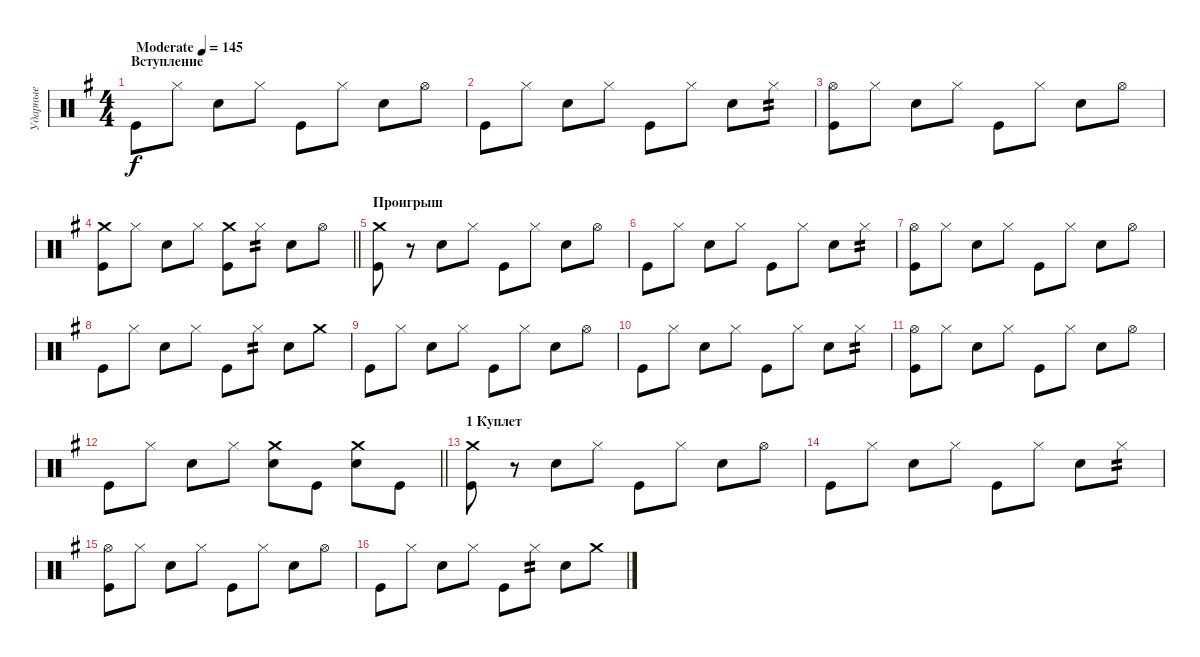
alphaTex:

\track ("Ударные" "Ударные") {instrument percussion}
\staff {score}
\articulation defaults
\ts (4 4)
\section ("" "Вступление")
\tempo (145 "Moderate")
\clef neutral
\ks eminor "Kick (hit)".8{dy f} "Hi-Hat (closed)".8 "Snare (hit) 2".8 "Hi-Hat (closed)".8 "Kick (hit)".8 "Hi-Hat (closed)".8 "Snare (hit) 2".8 "Hi-Hat (open)".8
|
"Kick (hit)".8 "Hi-Hat (closed)".8 "Snare (hit) 2".8 "Hi-Hat (closed)".8 "Kick (hit)".8 "Hi-Hat (closed)".8 "Snare (hit) 2".8 "Hi-Hat (closed)".8{tp 2} |
("Hi-Hat (open)" "Kick (hit)").8 "Hi-Hat (closed)".8 "Snare (hit) 2".8 "Hi-Hat (closed)".8 "Kick (hit)".8 "Hi-Hat (closed)".8 "Snare (hit) 2".8 "Hi-Hat (open)".8 |
\barLineRight lightlight
("Crash medium (hit)" "Kick (hit)").8 "Hi-Hat (closed)".8 "Snare (hit) 2".8 "Hi-Hat (closed)".8 ("Crash medium (hit)" "Kick (hit)").8 "Hi-Hat (closed)".8{tp 2} "Snare (hit) 2".8 "Hi-Hat (open)".8 |
\section ("" "Проигрыш")
("Crash medium (hit)" "Kick (hit)").8 r.8 "Snare (hit) 2".8 "Hi-Hat (closed)".8 "Kick (hit)".8 "Hi-Hat (closed)".8 "Snare (hit) 2".8 "Hi-Hat (open)".8 |
"Kick (hit)".8 "Hi-Hat (closed)".8 "Snare (hit) 2".8 "Hi-Hat (closed)".8 "Kick (hit)".8 "Hi-Hat (closed)".8 "Snare (hit) 2".8 "Hi-Hat (closed)".8{tp 2} |
("Hi-Hat (open)" "Kick (hit)").8 "Hi-Hat (closed)".8 "Snare (hit) 2".8 "Hi-Hat (closed)".8 "Kick (hit)".8 "Hi-Hat (closed)".8 "Snare (hit) 2".8 "Hi-Hat (open)".8 |
"Kick (hit)".8 "Hi-Hat (closed)".8 "Snare (hit) 2".8 "Hi-Hat (closed)".8 "Kick (hit)".8 "Hi-Hat (closed)".8{tp 2} "Snare (hit) 2".8 "Crash medium (hit)".8 |
"Kick (hit)".8 "Hi-Hat (closed)".8 "Snare (hit) 2".8 "Hi-Hat (closed)".8 "Kick (hit)".8 "Hi-Hat (closed)".8 "Snare (hit) 2".8 "Hi-Hat (open)".8 |
"Kick (hit)".8 "Hi-Hat (closed)".8 "Snare (hit) 2".8 "Hi-Hat (closed)".8 "Kick (hit)".8 "Hi-Hat (closed)".8 "Snare (hit) 2".8 "Hi-Hat (closed)".8{tp 2} |
("Hi-Hat (open)" "Kick (hit)").8 "Hi-Hat (closed)".8 "Snare (hit) 2".8 "Hi-Hat (closed)".8 "Kick (hit)".8 "Hi-Hat (closed)".8 "Snare (hit) 2".8 "Hi-Hat (open)".8 |
\barLineRight lightlight "Kick (hit)".8 "Hi-Hat (closed)".8 "Snare (hit) 2".8 "Hi-Hat (closed)".8
("Crash medium (hit)" "Snare (hit) 2").8 "Kick (hit)".8 ("Crash medium (hit)" "Snare (hit) 2").8 "Kick (hit)".8 |
\section ("" "1 Куплет")
("Crash medium (hit)" "Kick (hit)").8 r.8 "Snare (hit) 2".8 "Hi-Hat (closed)".8 "Kick (hit)".8 "Hi-Hat (closed)".8 "Snare (hit) 2".8 "Hi-Hat (open)".8 |
"Kick (hit)".8 "Hi-Hat (closed)".8 "Snare (hit) 2".8 "Hi-Hat (closed)".8 "Kick (hit)".8 "Hi-Hat (closed)".8 "Snare (hit) 2".8 "Hi-Hat (closed)".8{tp 2} |
("Hi-Hat (open)" "Kick (hit)").8 "Hi-Hat (closed)".8 "Snare (hit) 2".8 "Hi-Hat (closed)".8 "Kick (hit)".8 "Hi-Hat (closed)".8 "Snare (hit) 2".8 "Hi-Hat (open)".8 |
"Kick (hit)".8 "Hi-Hat (closed)".8 "Snare (hit) 2".8 "Hi-Hat (closed)".8 "Kick (hit)".8 "Hi-Hat (closed)".8{tp 2} "Snare (hit) 2".8 "Crash medium (hit)".8
